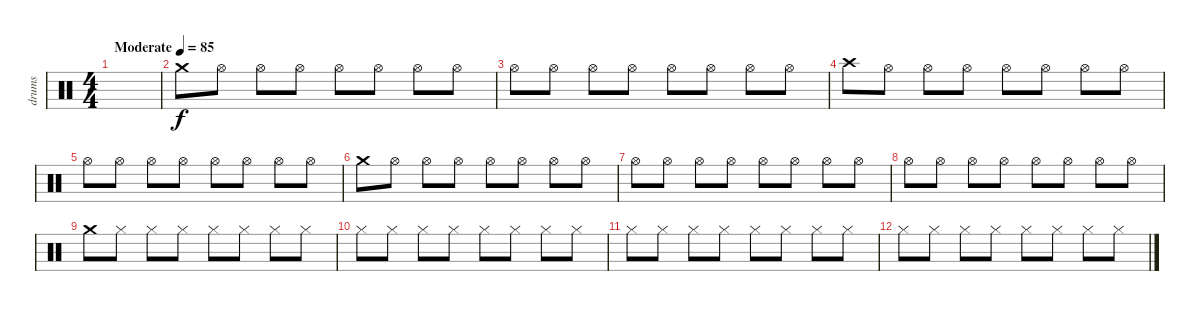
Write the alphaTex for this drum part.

\track ("drums" "drums") {instrument percussion}
\staff {score}
\articulation defaults
\ts (4 4)
\tempo (85 "Moderate")
\clef neutral
\ks c
|
"Crash medium (hit)".8 "Hi-Hat (open)".8 "Hi-Hat (open)".8 "Hi-Hat (open)".8 "Hi-Hat (open)".8 "Hi-Hat (open)".8 "Hi-Hat (open)".8 "Hi-Hat (open)".8 |
"Hi-Hat (open)".8 "Hi-Hat (open)".8 "Hi-Hat (open)".8 "Hi-Hat (open)".8 "Hi-Hat (open)".8 "Hi-Hat (open)".8 "Hi-Hat (open)".8 "Hi-Hat (open)".8 |
"Crash high (hit)".8 "Hi-Hat (open)".8 "Hi-Hat (open)".8 "Hi-Hat (open)".8 "Hi-Hat (open)".8 "Hi-Hat (open)".8 "Hi-Hat (open)".8 "Hi-Hat (open)".8 |
"Hi-Hat (open)".8 "Hi-Hat (open)".8 "Hi-Hat (open)".8 "Hi-Hat (open)".8 "Hi-Hat (open)".8 "Hi-Hat (open)".8 "Hi-Hat (open)".8 "Hi-Hat (open)".8 |
"Crash medium (hit)".8 "Hi-Hat (open)".8 "Hi-Hat (open)".8 "Hi-Hat (open)".8 "Hi-Hat (open)".8 "Hi-Hat (open)".8 "Hi-Hat (open)".8 "Hi-Hat (open)".8 |
"Hi-Hat (open)".8 "Hi-Hat (open)".8 "Hi-Hat (open)".8 "Hi-Hat (open)".8 "Hi-Hat (open)".8 "Hi-Hat (open)".8 "Hi-Hat (open)".8 "Hi-Hat (open)".8 |
"Hi-Hat (open)".8 "Hi-Hat (open)".8 "Hi-Hat (open)".8 "Hi-Hat (open)".8 "Hi-Hat (open)".8 "Hi-Hat (open)".8 "Hi-Hat (open)".8 "Hi-Hat (open)".8 |
"Crash medium (hit)".8 "Hi-Hat (closed)".8 "Hi-Hat (closed)".8 "Hi-Hat (closed)".8 "Hi-Hat (closed)".8 "Hi-Hat (closed)".8 "Hi-Hat (closed)".8 "Hi-Hat (closed)".8 |
"Hi-Hat (closed)".8 "Hi-Hat (closed)".8 "Hi-Hat (closed)".8 "Hi-Hat (closed)".8 "Hi-Hat (closed)".8 "Hi-Hat (closed)".8 "Hi-Hat (closed)".8 "Hi-Hat (closed)".8 |
"Hi-Hat (closed)".8 "Hi-Hat (closed)".8 "Hi-Hat (closed)".8 "Hi-Hat (closed)".8 "Hi-Hat (closed)".8 "Hi-Hat (closed)".8 "Hi-Hat (closed)".8 "Hi-Hat (closed)".8 |
"Hi-Hat (closed)".8 "Hi-Hat (closed)".8 "Hi-Hat (closed)".8 "Hi-Hat (closed)".8 "Hi-Hat (closed)".8 "Hi-Hat (closed)".8 "Hi-Hat (closed)".8 "Hi-Hat (closed)".8
